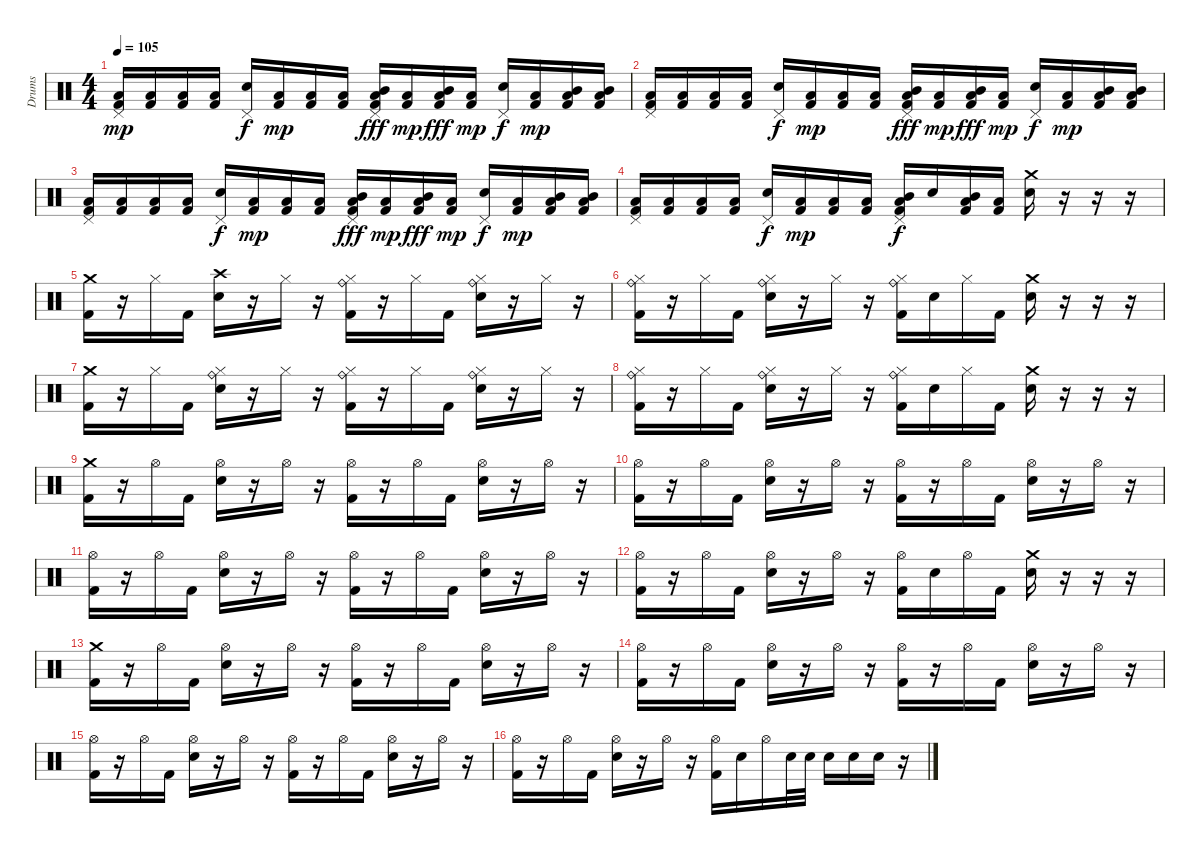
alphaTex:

\track ("Drums" "Drums") {instrument percussion}
\staff {score}
\articulation defaults
\ts (4 4)
\tempo 105
\clef neutral
\ks c
("Pedal Hi-Hat (hit)" "Low Tom (hit)" "Kick (hit) 2").16{dy mp} ("Low Tom (hit)" "Kick (hit) 2").16 ("Low Tom (hit)" "Kick (hit) 2").16 ("Low Tom (hit)" "Kick (hit) 2").16 ("Pedal Hi-Hat (hit)" "Snare (hit) 2").16{dy f} ("Low Tom (hit)" "Kick (hit) 2").16{dy mp} ("Low Tom (hit)" "Kick (hit) 2").16 ("Low Tom (hit)" "Kick (hit) 2").16 ("Pedal Hi-Hat (hit)" "Mid Tom (hit)" "Low Tom (hit)" "Kick (hit) 2").16{dy fff} ("Low Tom (hit)" "Kick (hit) 2").16{dy mp} ("Mid Tom (hit)" "Low Tom (hit)" "Kick (hit) 2").16{dy fff} ("Low Tom (hit)" "Kick (hit) 2").16{dy mp} ("Pedal Hi-Hat (hit)" "Snare (hit) 2").16{dy f} ("Low Tom (hit)" "Kick (hit) 2").16{dy mp} ("Mid Tom (hit)" "Low Tom (hit)" "Kick (hit) 2").16 ("Mid Tom (hit)" "Low Tom (hit)" "Kick (hit) 2").16 |
("Pedal Hi-Hat (hit)" "Low Tom (hit)" "Kick (hit) 2").16 ("Low Tom (hit)" "Kick (hit) 2").16 ("Low Tom (hit)" "Kick (hit) 2").16 ("Low Tom (hit)" "Kick (hit) 2").16 ("Pedal Hi-Hat (hit)" "Snare (hit) 2").16{dy f} ("Low Tom (hit)" "Kick (hit) 2").16{dy mp} ("Low Tom (hit)" "Kick (hit) 2").16 ("Low Tom (hit)" "Kick (hit) 2").16 ("Pedal Hi-Hat (hit)" "Mid Tom (hit)" "Low Tom (hit)" "Kick (hit) 2").16{dy fff} ("Low Tom (hit)" "Kick (hit) 2").16{dy mp} ("Mid Tom (hit)" "Low Tom (hit)" "Kick (hit) 2").16{dy fff} ("Low Tom (hit)" "Kick (hit) 2").16{dy mp} ("Pedal Hi-Hat (hit)" "Snare (hit) 2").16{dy f} ("Low Tom (hit)" "Kick (hit) 2").16{dy mp} ("Mid Tom (hit)" "Low Tom (hit)" "Kick (hit) 2").16 ("Mid Tom (hit)" "Low Tom (hit)" "Kick (hit) 2").16 |
("Pedal Hi-Hat (hit)" "Low Tom (hit)" "Kick (hit) 2").16 ("Low Tom (hit)" "Kick (hit) 2").16 ("Low Tom (hit)" "Kick (hit) 2").16 ("Low Tom (hit)" "Kick (hit) 2").16 ("Pedal Hi-Hat (hit)" "Snare (hit) 2").16{dy f} ("Low Tom (hit)" "Kick (hit) 2").16{dy mp} ("Low Tom (hit)" "Kick (hit) 2").16 ("Low Tom (hit)" "Kick (hit) 2").16 ("Pedal Hi-Hat (hit)" "Mid Tom (hit)" "Low Tom (hit)" "Kick (hit) 2").16{dy fff} ("Low Tom (hit)" "Kick (hit) 2").16{dy mp} ("Mid Tom (hit)" "Low Tom (hit)" "Kick (hit) 2").16{dy fff} ("Low Tom (hit)" "Kick (hit) 2").16{dy mp} ("Pedal Hi-Hat (hit)" "Snare (hit) 2").16{dy f} ("Low Tom (hit)" "Kick (hit) 2").16{dy mp} ("Mid Tom (hit)" "Low Tom (hit)" "Kick (hit) 2").16 ("Mid Tom (hit)" "Low Tom (hit)" "Kick (hit) 2").16 |
("Pedal Hi-Hat (hit)" "Low Tom (hit)" "Kick (hit) 2").16 ("Low Tom (hit)" "Kick (hit) 2").16 ("Low Tom (hit)" "Kick (hit) 2").16 ("Low Tom (hit)" "Kick (hit) 2").16 ("Pedal Hi-Hat (hit)" "Snare (hit) 2").16{dy f} ("Low Tom (hit)" "Kick (hit) 2").16{dy mp} ("Low Tom (hit)" "Kick (hit) 2").16 ("Low Tom (hit)" "Kick (hit) 2").16 ("Pedal Hi-Hat (hit)" "Mid Tom (hit)" "Low Tom (hit)" "Kick (hit) 2").16{dy f} "Snare (hit) 2".16 ("Mid Tom (hit)" "Low Tom (hit)" "Kick (hit) 2").16 ("Low Tom (hit)" "Kick (hit) 2").16 ("Crash medium (hit)" "Snare (hit) 2").16 r.16 r.16 r.16 |
("Crash medium (hit)" "Kick (hit) 2").16 r.16 "Hi-Hat (closed)".16 "Kick (hit) 2".16 ("Crash high (hit)" "Snare (hit) 2").16 r.16 "Hi-Hat (closed)".16 r.16 ("Ride (bell)" "Hi-Hat (closed)" "Kick (hit) 2").16 r.16 "Hi-Hat (closed)".16 "Kick (hit) 2".16 ("Ride (bell)" "Hi-Hat (closed)" "Snare (hit) 2").16 r.16 "Hi-Hat (closed)".16 r.16 |
("Ride (bell)" "Hi-Hat (closed)" "Kick (hit) 2").16 r.16 "Hi-Hat (closed)".16 "Kick (hit) 2".16 ("Ride (bell)" "Hi-Hat (closed)" "Snare (hit) 2").16 r.16 "Hi-Hat (closed)".16 r.16 ("Ride (bell)" "Hi-Hat (closed)" "Kick (hit) 2").16 "Snare (hit) 2".16 "Hi-Hat (closed)".16 "Kick (hit) 2".16 ("Crash medium (hit)" "Snare (hit) 2").16 r.16 r.16 r.16 |
("Crash medium (hit)" "Kick (hit) 2").16 r.16 "Hi-Hat (closed)".16 "Kick (hit) 2".16 ("Ride (bell)" "Hi-Hat (closed)" "Snare (hit) 2").16 r.16 "Hi-Hat (closed)".16 r.16 ("Ride (bell)" "Hi-Hat (closed)" "Kick (hit) 2").16 r.16 "Hi-Hat (closed)".16 "Kick (hit) 2".16 ("Ride (bell)" "Hi-Hat (closed)" "Snare (hit) 2").16 r.16 "Hi-Hat (closed)".16 r.16 |
("Ride (bell)" "Hi-Hat (closed)" "Kick (hit) 2").16 r.16 "Hi-Hat (closed)".16 "Kick (hit) 2".16 ("Ride (bell)" "Hi-Hat (closed)" "Snare (hit) 2").16 r.16 "Hi-Hat (closed)".16 r.16 ("Ride (bell)" "Hi-Hat (closed)" "Kick (hit) 2").16 "Snare (hit) 2".16 "Hi-Hat (closed)".16 "Kick (hit) 2".16 ("Crash medium (hit)" "Snare (hit) 2").16 r.16 r.16 r.16 |
("Crash medium (hit)" "Kick (hit) 2").16 r.16 "Hi-Hat (open)".16 "Kick (hit) 2".16 ("Hi-Hat (open)" "Snare (hit) 2").16 r.16 "Hi-Hat (open)".16 r.16 ("Hi-Hat (open)" "Kick (hit) 2").16 r.16 "Hi-Hat (open)".16 "Kick (hit) 2".16 ("Hi-Hat (open)" "Snare (hit) 2").16 r.16 "Hi-Hat (open)".16 r.16 |
("Hi-Hat (open)" "Kick (hit) 2").16 r.16 "Hi-Hat (open)".16 "Kick (hit) 2".16 ("Hi-Hat (open)" "Snare (hit) 2").16 r.16 "Hi-Hat (open)".16 r.16 ("Hi-Hat (open)" "Kick (hit) 2").16 r.16 "Hi-Hat (open)".16 "Kick (hit) 2".16 ("Hi-Hat (open)" "Snare (hit) 2").16 r.16 "Hi-Hat (open)".16 r.16 |
("Hi-Hat (open)" "Kick (hit) 2").16 r.16 "Hi-Hat (open)".16 "Kick (hit) 2".16 ("Hi-Hat (open)" "Snare (hit) 2").16 r.16 "Hi-Hat (open)".16 r.16 ("Hi-Hat (open)" "Kick (hit) 2").16 r.16 "Hi-Hat (open)".16 "Kick (hit) 2".16 ("Hi-Hat (open)" "Snare (hit) 2").16 r.16 "Hi-Hat (open)".16 r.16 |
("Hi-Hat (open)" "Kick (hit) 2").16 r.16 "Hi-Hat (open)".16 "Kick (hit) 2".16 ("Hi-Hat (open)" "Snare (hit) 2").16 r.16 "Hi-Hat (open)".16 r.16 ("Hi-Hat (open)" "Kick (hit) 2").16 "Snare (hit) 2".16 "Hi-Hat (open)".16 "Kick (hit) 2".16 ("Crash medium (hit)" "Snare (hit) 2").16 r.16 r.16 r.16 |
("Crash medium (hit)" "Kick (hit) 2").16 r.16 "Hi-Hat (open)".16 "Kick (hit) 2".16 ("Hi-Hat (open)" "Snare (hit) 2").16 r.16 "Hi-Hat (open)".16 r.16 ("Hi-Hat (open)" "Kick (hit) 2").16 r.16 "Hi-Hat (open)".16 "Kick (hit) 2".16 ("Hi-Hat (open)" "Snare (hit) 2").16 r.16 "Hi-Hat (open)".16 r.16 |
("Hi-Hat (open)" "Kick (hit) 2").16 r.16 "Hi-Hat (open)".16 "Kick (hit) 2".16 ("Hi-Hat (open)" "Snare (hit) 2").16 r.16 "Hi-Hat (open)".16 r.16 ("Hi-Hat (open)" "Kick (hit) 2").16 r.16 "Hi-Hat (open)".16 "Kick (hit) 2".16 ("Hi-Hat (open)" "Snare (hit) 2").16 r.16 "Hi-Hat (open)".16 r.16 |
("Hi-Hat (open)" "Kick (hit) 2").16 r.16 "Hi-Hat (open)".16 "Kick (hit) 2".16 ("Hi-Hat (open)" "Snare (hit) 2").16 r.16 "Hi-Hat (open)".16 r.16 ("Hi-Hat (open)" "Kick (hit) 2").16 r.16 "Hi-Hat (open)".16 "Kick (hit) 2".16 ("Hi-Hat (open)" "Snare (hit) 2").16 r.16 "Hi-Hat (open)".16 r.16 |
("Hi-Hat (open)" "Kick (hit) 2").16 r.16 "Hi-Hat (open)".16 "Kick (hit) 2".16 ("Hi-Hat (open)" "Snare (hit) 2").16 r.16 "Hi-Hat (open)".16 r.16 ("Hi-Hat (open)" "Kick (hit) 2").16 "Snare (hit) 2".16 "Hi-Hat (open)".16 "Snare (hit) 2".32 "Snare (hit) 2".32 "Snare (hit) 2".16 "Snare (hit) 2".16 "Snare (hit) 2".16 r.16
